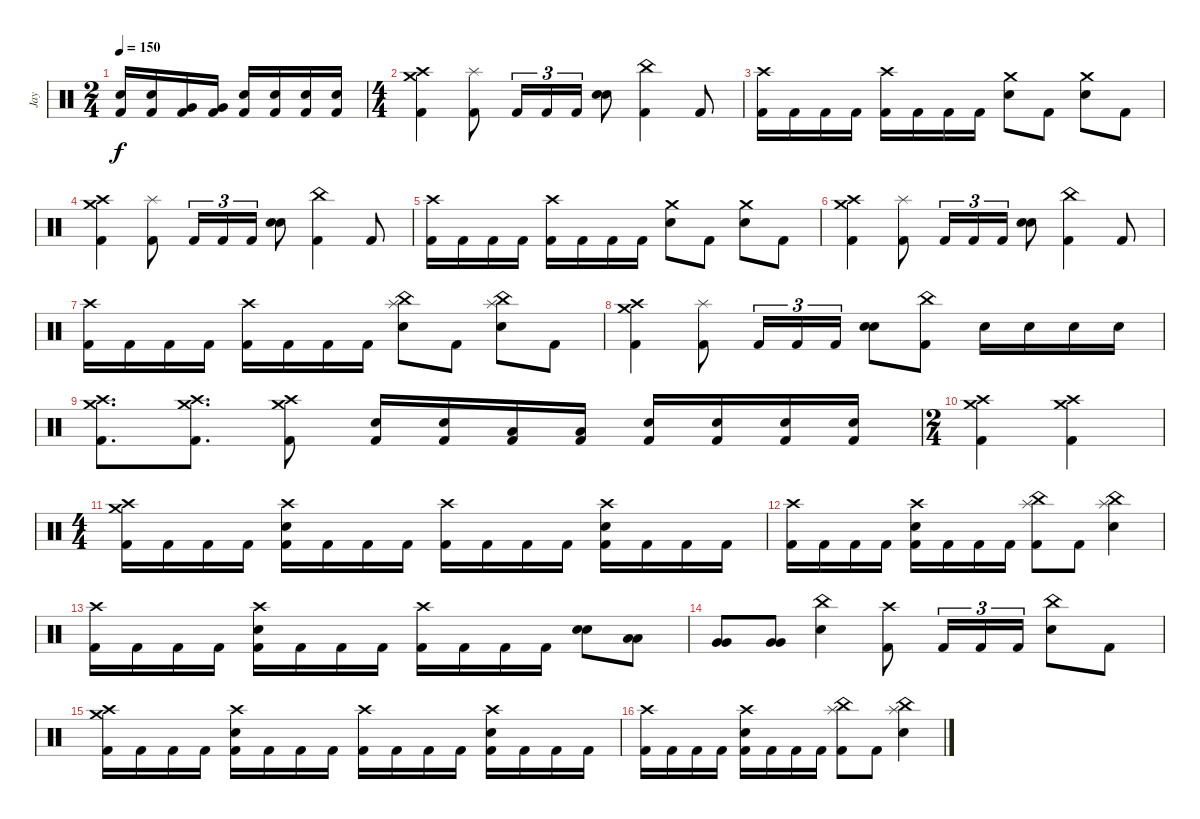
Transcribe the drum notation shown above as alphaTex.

\track ("Jay" "Jay") {instrument percussion}
\staff {score}
\articulation defaults
\ts (2 4)
\tempo 150
\clef neutral
\ks c
("Electric Snare (hit)" "Kick (hit) 2").16{dy f} ("Electric Snare (hit)" "Kick (hit) 2").16 ("Very Low Tom (hit)" "Kick (hit) 2").16 ("Very Low Tom (hit)" "Kick (hit) 2").16 ("Electric Snare (hit)" "Kick (hit) 2").16 ("Electric Snare (hit)" "Kick (hit) 2").16 ("Electric Snare (hit)" "Kick (hit) 2").16 ("Electric Snare (hit)" "Kick (hit) 2").16 |
\ts (4 4)
("Crash high (hit)" "Crash medium (hit)" "Kick (hit) 2").4 ("Splash (hit)" "Kick (hit) 2").8 "Kick (hit) 2".16{tu (3 2)} "Kick (hit) 2".16{tu (3 2)} "Kick (hit) 2".16{tu (3 2)} ("Electric Snare (hit)" "Electric Snare (hit)").8{bu 120} ("China (hit)" "Kick (hit) 2").4 "Kick (hit) 2".8 |
("Crash high (hit)" "Kick (hit) 2").16 "Kick (hit) 2".16 "Kick (hit) 2".16 "Kick (hit) 2".16 ("Crash high (hit)" "Kick (hit) 2").16 "Kick (hit) 2".16 "Kick (hit) 2".16 "Kick (hit) 2".16 ("Crash medium (hit)" "Electric Snare (hit)").8 "Kick (hit) 2".8 ("Crash medium (hit)" "Electric Snare (hit)").8 "Kick (hit) 2".8 |
("Crash high (hit)" "Crash medium (hit)" "Kick (hit) 2").4 ("Splash (hit)" "Kick (hit) 2").8 "Kick (hit) 2".16{tu (3 2)} "Kick (hit) 2".16{tu (3 2)} "Kick (hit) 2".16{tu (3 2)} ("Electric Snare (hit)" "Electric Snare (hit)").8{bu 120} ("China (hit)" "Kick (hit) 2").4 "Kick (hit) 2".8 |
("Crash high (hit)" "Kick (hit) 2").16 "Kick (hit) 2".16 "Kick (hit) 2".16 "Kick (hit) 2".16 ("Crash high (hit)" "Kick (hit) 2").16 "Kick (hit) 2".16 "Kick (hit) 2".16 "Kick (hit) 2".16 ("Crash medium (hit)" "Electric Snare (hit)").8 "Kick (hit) 2".8 ("Crash medium (hit)" "Electric Snare (hit)").8 "Kick (hit) 2".8 |
("Crash high (hit)" "Crash medium (hit)" "Kick (hit) 2").4 ("Splash (hit)" "Kick (hit) 2").8 "Kick (hit) 2".16{tu (3 2)} "Kick (hit) 2".16{tu (3 2)} "Kick (hit) 2".16{tu (3 2)} ("Electric Snare (hit)" "Electric Snare (hit)").8{bu 120} ("China (hit)" "Kick (hit) 2").4 "Kick (hit) 2".8 |
("Crash high (hit)" "Kick (hit) 2").16 "Kick (hit) 2".16 "Kick (hit) 2".16 "Kick (hit) 2".16 ("Crash high (hit)" "Kick (hit) 2").16 "Kick (hit) 2".16 "Kick (hit) 2".16 "Kick (hit) 2".16 ("China (hit)" "Splash (hit)" "Electric Snare (hit)").8 "Kick (hit) 2".8 ("China (hit)" "Splash (hit)" "Electric Snare (hit)").8 "Kick (hit) 2".8 |
("Crash high (hit)" "Crash medium (hit)" "Kick (hit) 2").4 ("Splash (hit)" "Kick (hit) 2").8 "Kick (hit) 2".16{tu (3 2)} "Kick (hit) 2".16{tu (3 2)} "Kick (hit) 2".16{tu (3 2)} ("Electric Snare (hit)" "Electric Snare (hit)").8{bu 120} ("China (hit)" "Kick (hit) 2").8 "Electric Snare (hit)".16 "Electric Snare (hit)".16 "Electric Snare (hit)".16 "Electric Snare (hit)".16 |
("Crash high (hit)" "Crash medium (hit)" "Kick (hit) 2").8{d} ("Crash high (hit)" "Crash medium (hit)" "Kick (hit) 2").8{d} ("Crash high (hit)" "Crash medium (hit)" "Kick (hit) 2").8 ("Electric Snare (hit)" "Kick (hit) 2").16 ("Electric Snare (hit)" "Kick (hit) 2").16 ("Low Tom (hit)" "Kick (hit) 2").16 ("Low Tom (hit)" "Kick (hit) 2").16 ("Electric Snare (hit)" "Kick (hit) 2").16 ("Electric Snare (hit)" "Kick (hit) 2").16 ("Electric Snare (hit)" "Kick (hit) 2").16 ("Electric Snare (hit)" "Kick (hit) 2").16 |
\ts (2 4)
("Crash high (hit)" "Crash medium (hit)" "Kick (hit) 2").4 ("Crash high (hit)" "Crash medium (hit)" "Kick (hit) 2").4 |
\ts (4 4)
("Crash high (hit)" "Crash medium (hit)" "Kick (hit) 2").16 "Kick (hit) 2".16 "Kick (hit) 2".16 "Kick (hit) 2".16 ("Crash high (hit)" "Electric Snare (hit)" "Kick (hit) 2").16 "Kick (hit) 2".16 "Kick (hit) 2".16 "Kick (hit) 2".16 ("Crash high (hit)" "Kick (hit) 2").16 "Kick (hit) 2".16 "Kick (hit) 2".16 "Kick (hit) 2".16 ("Crash high (hit)" "Electric Snare (hit)" "Kick (hit) 2").16 "Kick (hit) 2".16 "Kick (hit) 2".16 "Kick (hit) 2".16 |
("Crash high (hit)" "Kick (hit) 2").16 "Kick (hit) 2".16 "Kick (hit) 2".16 "Kick (hit) 2".16 ("Crash high (hit)" "Electric Snare (hit)" "Kick (hit) 2").16 "Kick (hit) 2".16 "Kick (hit) 2".16 "Kick (hit) 2".16 ("China (hit)" "Splash (hit)" "Kick (hit) 2").8 "Kick (hit) 2".8 ("China (hit)" "Splash (hit)" "Electric Snare (hit)").4 |
("Crash high (hit)" "Kick (hit) 2").16 "Kick (hit) 2".16 "Kick (hit) 2".16 "Kick (hit) 2".16 ("Crash high (hit)" "Electric Snare (hit)" "Kick (hit) 2").16 "Kick (hit) 2".16 "Kick (hit) 2".16 "Kick (hit) 2".16 ("Crash high (hit)" "Kick (hit) 2").16 "Kick (hit) 2".16 "Kick (hit) 2".16 "Kick (hit) 2".16 ("Electric Snare (hit)" "Electric Snare (hit)").8{bu 120} ("Low Tom (hit)" "Low Tom (hit)").8{bu 120} |
("Very Low Tom (hit)" "Very Low Tom (hit)").8{bu 120} ("Very Low Tom (hit)" "Very Low Tom (hit)").8{bu 120} ("China (hit)" "Electric Snare (hit)").4 ("Crash high (hit)" "Kick (hit) 2").8 "Kick (hit) 2".16{tu (3 2)} "Kick (hit) 2".16{tu (3 2)} "Kick (hit) 2".16{tu (3 2)} ("China (hit)" "Electric Snare (hit)").8 "Kick (hit) 2".8 |
("Crash high (hit)" "Crash medium (hit)" "Kick (hit) 2").16 "Kick (hit) 2".16 "Kick (hit) 2".16 "Kick (hit) 2".16 ("Crash high (hit)" "Electric Snare (hit)" "Kick (hit) 2").16 "Kick (hit) 2".16 "Kick (hit) 2".16 "Kick (hit) 2".16 ("Crash high (hit)" "Kick (hit) 2").16 "Kick (hit) 2".16 "Kick (hit) 2".16 "Kick (hit) 2".16 ("Crash high (hit)" "Electric Snare (hit)" "Kick (hit) 2").16 "Kick (hit) 2".16 "Kick (hit) 2".16 "Kick (hit) 2".16 |
("Crash high (hit)" "Kick (hit) 2").16 "Kick (hit) 2".16 "Kick (hit) 2".16 "Kick (hit) 2".16 ("Crash high (hit)" "Electric Snare (hit)" "Kick (hit) 2").16 "Kick (hit) 2".16 "Kick (hit) 2".16 "Kick (hit) 2".16 ("China (hit)" "Splash (hit)" "Kick (hit) 2").8 "Kick (hit) 2".8 ("China (hit)" "Splash (hit)" "Electric Snare (hit)").4
